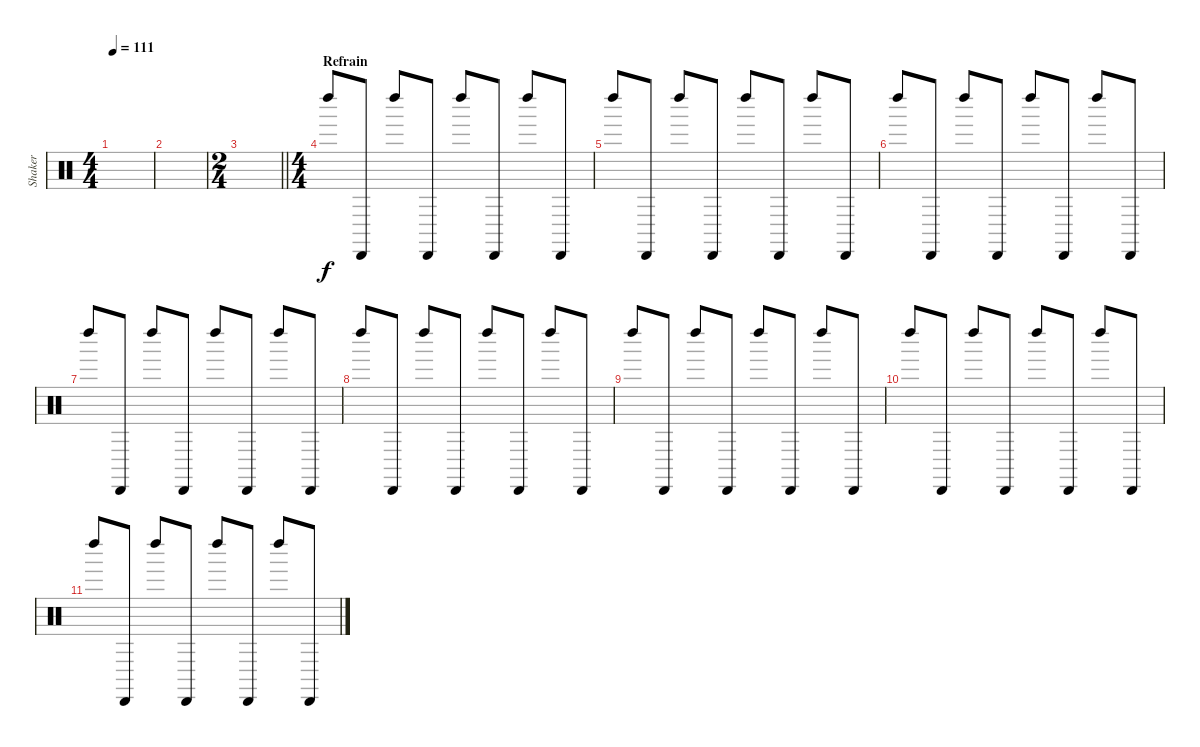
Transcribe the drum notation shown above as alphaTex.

\track ("Shaker" "Shaker") {instrument percussion}
\staff {score}
\articulation defaults
\ts (4 4)
\tempo 111
\clef neutral
\ks c
|
|
\ts (2 4)
\barLineRight lightlight
|
\ts (4 4)
\section ("" "Refrain")
"Left Maraca (hit)".8 "Cabasa (hit)".8 "Left Maraca (hit)".8 "Cabasa (hit)".8 "Left Maraca (hit)".8 "Cabasa (hit)".8 "Left Maraca (hit)".8 "Cabasa (hit)".8 |
"Left Maraca (hit)".8 "Cabasa (hit)".8 "Left Maraca (hit)".8 "Cabasa (hit)".8 "Left Maraca (hit)".8 "Cabasa (hit)".8 "Left Maraca (hit)".8 "Cabasa (hit)".8 |
"Left Maraca (hit)".8 "Cabasa (hit)".8 "Left Maraca (hit)".8 "Cabasa (hit)".8 "Left Maraca (hit)".8 "Cabasa (hit)".8 "Left Maraca (hit)".8 "Cabasa (hit)".8 |
"Left Maraca (hit)".8 "Cabasa (hit)".8 "Left Maraca (hit)".8 "Cabasa (hit)".8 "Left Maraca (hit)".8 "Cabasa (hit)".8 "Left Maraca (hit)".8 "Cabasa (hit)".8 |
"Left Maraca (hit)".8 "Cabasa (hit)".8 "Left Maraca (hit)".8 "Cabasa (hit)".8 "Left Maraca (hit)".8 "Cabasa (hit)".8 "Left Maraca (hit)".8 "Cabasa (hit)".8 |
"Left Maraca (hit)".8 "Cabasa (hit)".8 "Left Maraca (hit)".8 "Cabasa (hit)".8 "Left Maraca (hit)".8 "Cabasa (hit)".8 "Left Maraca (hit)".8 "Cabasa (hit)".8 |
"Left Maraca (hit)".8 "Cabasa (hit)".8 "Left Maraca (hit)".8 "Cabasa (hit)".8 "Left Maraca (hit)".8 "Cabasa (hit)".8 "Left Maraca (hit)".8 "Cabasa (hit)".8 |
"Left Maraca (hit)".8 "Cabasa (hit)".8 "Left Maraca (hit)".8 "Cabasa (hit)".8 "Left Maraca (hit)".8 "Cabasa (hit)".8 "Left Maraca (hit)".8 "Cabasa (hit)".8
